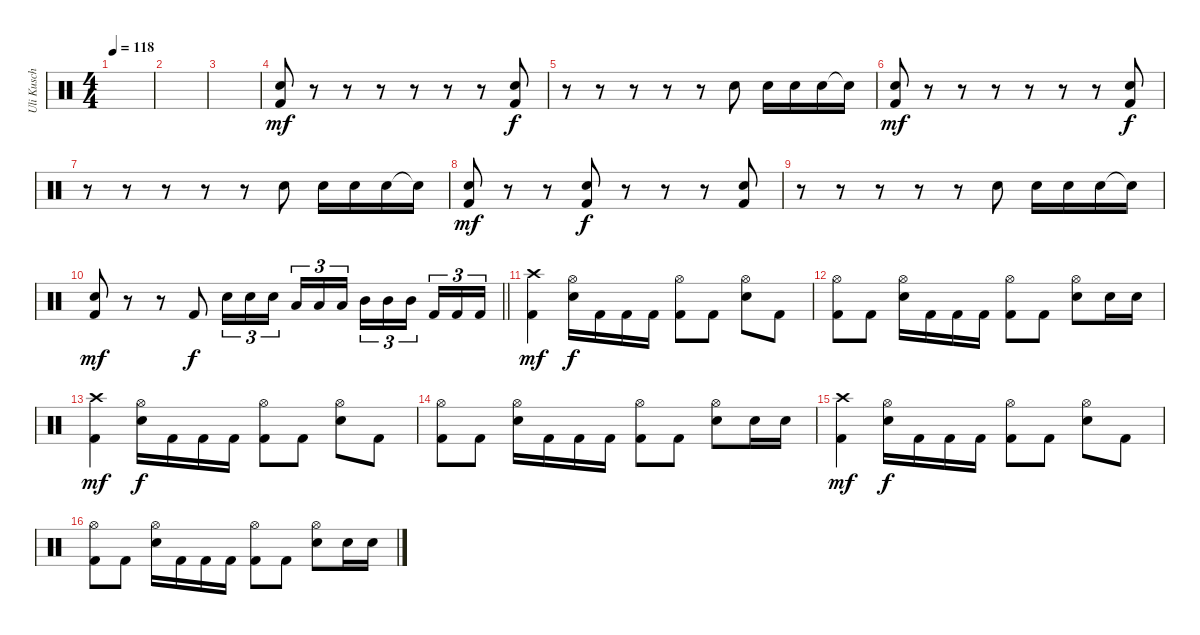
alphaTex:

\track ("Uli Kusch" "Uli Kusch") {instrument percussion}
\staff {score}
\articulation defaults
\ts (4 4)
\tempo 118
\clef neutral
\ks c
|
|
|
("Kick (hit) 2" "Electric Snare (hit)").8{dy mf} r.8 r.8 r.8 r.8 r.8 r.8 ("Kick (hit) 2" "Electric Snare (hit)").8{dy f} |
r.8 r.8 r.8 r.8 r.8 "Electric Snare (hit)".8 "Electric Snare (hit)".16 "Electric Snare (hit)".16 "Electric Snare (hit)".16 "Snare (hit)"{t}.16 |
("Kick (hit) 2" "Electric Snare (hit)").8{dy mf} r.8 r.8 r.8 r.8 r.8 r.8 ("Kick (hit) 2" "Electric Snare (hit)").8{dy f} |
r.8 r.8 r.8 r.8 r.8 "Electric Snare (hit)".8 "Electric Snare (hit)".16 "Electric Snare (hit)".16 "Electric Snare (hit)".16 "Snare (hit)"{t}.16 |
("Kick (hit) 2" "Electric Snare (hit)").8{dy mf} r.8 r.8 ("Kick (hit) 2" "Electric Snare (hit)").8{dy f} r.8 r.8 r.8 ("Kick (hit) 2" "Electric Snare (hit)").8 |
r.8 r.8 r.8 r.8 r.8 "Electric Snare (hit)".8 "Electric Snare (hit)".16 "Electric Snare (hit)".16 "Electric Snare (hit)".16 "Snare (hit)"{t}.16 |
\barLineRight lightlight
("Kick (hit) 2" "Electric Snare (hit)").8{dy mf} r.8 r.8 "Kick (hit) 2".8{dy f} "Electric Snare (hit)".16{tu (3 2)} "Electric Snare (hit)".16{tu (3 2)} "Electric Snare (hit)".16{tu (3 2)} "Low Tom (hit)".16{tu (3 2)} "Low Tom (hit)".16{tu (3 2)} "Low Tom (hit)".16{tu (3 2)} "Mid Tom (hit)".16{tu (3 2)} "Mid Tom (hit)".16{tu (3 2)} "Mid Tom (hit)".16{tu (3 2)} "Kick (hit) 2".16{tu (3 2)} "Kick (hit) 2".16{tu (3 2)} "Kick (hit) 2".16{tu (3 2)} |
("Kick (hit) 2" "Crash high (hit)").4{dy mf} ("Electric Snare (hit)" "Hi-Hat (open)").16{dy f} "Kick (hit) 2".16 "Kick (hit) 2".16 "Kick (hit) 2".16 ("Kick (hit) 2" "Hi-Hat (open)").8 "Kick (hit) 2".8 ("Electric Snare (hit)" "Hi-Hat (open)").8 "Kick (hit) 2".8 |
("Kick (hit) 2" "Hi-Hat (open)").8 "Kick (hit) 2".8 ("Electric Snare (hit)" "Hi-Hat (open)").16 "Kick (hit) 2".16 "Kick (hit) 2".16 "Kick (hit) 2".16 ("Kick (hit) 2" "Hi-Hat (open)").8 "Kick (hit) 2".8 ("Electric Snare (hit)" "Hi-Hat (open)").8 "Electric Snare (hit)".16 "Electric Snare (hit)".16 |
("Kick (hit) 2" "Crash high (hit)").4{dy mf} ("Electric Snare (hit)" "Hi-Hat (open)").16{dy f} "Kick (hit) 2".16 "Kick (hit) 2".16 "Kick (hit) 2".16 ("Kick (hit) 2" "Hi-Hat (open)").8 "Kick (hit) 2".8 ("Electric Snare (hit)" "Hi-Hat (open)").8 "Kick (hit) 2".8 |
("Kick (hit) 2" "Hi-Hat (open)").8 "Kick (hit) 2".8 ("Electric Snare (hit)" "Hi-Hat (open)").16 "Kick (hit) 2".16 "Kick (hit) 2".16 "Kick (hit) 2".16 ("Kick (hit) 2" "Hi-Hat (open)").8 "Kick (hit) 2".8 ("Electric Snare (hit)" "Hi-Hat (open)").8 "Electric Snare (hit)".16 "Electric Snare (hit)".16 |
("Kick (hit) 2" "Crash high (hit)").4{dy mf} ("Electric Snare (hit)" "Hi-Hat (open)").16{dy f} "Kick (hit) 2".16 "Kick (hit) 2".16 "Kick (hit) 2".16 ("Kick (hit) 2" "Hi-Hat (open)").8 "Kick (hit) 2".8 ("Electric Snare (hit)" "Hi-Hat (open)").8 "Kick (hit) 2".8 |
("Kick (hit) 2" "Hi-Hat (open)").8 "Kick (hit) 2".8 ("Electric Snare (hit)" "Hi-Hat (open)").16 "Kick (hit) 2".16 "Kick (hit) 2".16 "Kick (hit) 2".16 ("Kick (hit) 2" "Hi-Hat (open)").8 "Kick (hit) 2".8 ("Electric Snare (hit)" "Hi-Hat (open)").8 "Electric Snare (hit)".16 "Electric Snare (hit)".16
